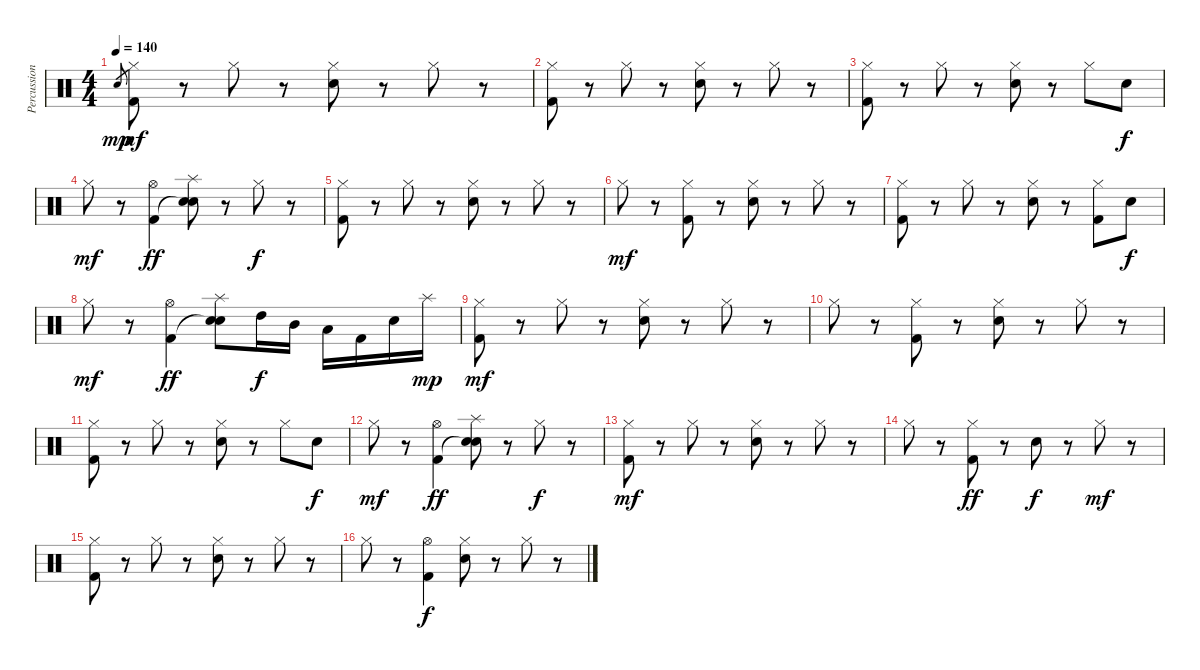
\track ("Percussion" "Percussion") {instrument percussion}
\staff {score}
\articulation defaults
\ts (4 4)
\tempo 140
\clef neutral
\ks c "Electric Snare (hit)"{sl}.8{gr dy mp}
("Hi-Hat (closed)" "Kick (hit) 2").8{dy mf} r.8 "Hi-Hat (closed)".8 r.8 ("Hi-Hat (closed)" "Electric Snare (hit)").8 r.8 "Hi-Hat (closed)".8 r.8 |
("Hi-Hat (closed)" "Kick (hit) 2").8 r.8 "Hi-Hat (closed)".8 r.8 ("Hi-Hat (closed)" "Electric Snare (hit)").8 r.8 "Hi-Hat (closed)".8 r.8 |
("Hi-Hat (closed)" "Kick (hit) 2").8 r.8 "Hi-Hat (closed)".8 r.8 ("Hi-Hat (closed)" "Electric Snare (hit)").8 r.8 "Hi-Hat (closed)".8 "Electric Snare (hit)".8{dy f} |
"Hi-Hat (closed)".8{dy mf} r.8 ("Hi-Hat (open)" "Kick (hit) 2").4{dy ff} ("Splash (hit)" "Electric Snare (hit)"{t} "Electric Snare (hit)").8 r.8 "Hi-Hat (closed)".8{dy f} r.8 |
("Hi-Hat (closed)" "Kick (hit) 2").8 r.8 "Hi-Hat (closed)".8 r.8 ("Hi-Hat (closed)" "Electric Snare (hit)").8 r.8 "Hi-Hat (closed)".8 r.8 |
"Hi-Hat (closed)".8{dy mf} r.8 ("Hi-Hat (closed)" "Kick (hit) 2").8 r.8 ("Hi-Hat (closed)" "Electric Snare (hit)").8 r.8 "Hi-Hat (closed)".8 r.8 |
("Hi-Hat (closed)" "Kick (hit) 2").8 r.8 "Hi-Hat (closed)".8 r.8 ("Hi-Hat (closed)" "Electric Snare (hit)").8 r.8 ("Hi-Hat (closed)" "Kick (hit) 2").8 "Electric Snare (hit)".8{dy f} |
"Hi-Hat (closed)".8{dy mf} r.8 ("Hi-Hat (open)" "Kick (hit) 2").4{dy ff} ("Splash (hit)" "Electric Snare (hit)"{t} "Electric Snare (hit)").8 "High Tom (hit)".16{dy f} "Mid Tom (hit)".16 "Low Tom (hit)".16 "Kick (hit) 2".16 "Electric Snare (hit)".16 "Splash (hit)".16{dy mp} |
("Hi-Hat (closed)" "Kick (hit) 2").8{dy mf} r.8 "Hi-Hat (closed)".8 r.8 ("Hi-Hat (closed)" "Electric Snare (hit)").8 r.8 "Hi-Hat (closed)".8 r.8 |
"Hi-Hat (closed)".8 r.8 ("Hi-Hat (closed)" "Kick (hit) 2").8 r.8 ("Hi-Hat (closed)" "Electric Snare (hit)").8 r.8 "Hi-Hat (closed)".8 r.8 |
("Hi-Hat (closed)" "Kick (hit) 2").8 r.8 "Hi-Hat (closed)".8 r.8 ("Hi-Hat (closed)" "Electric Snare (hit)").8 r.8 "Hi-Hat (closed)".8 "Electric Snare (hit)".8{dy f} |
"Hi-Hat (closed)".8{dy mf} r.8 ("Hi-Hat (open)" "Kick (hit) 2").4{dy ff} ("Splash (hit)" "Electric Snare (hit)"{t} "Electric Snare (hit)").8 r.8 "Hi-Hat (closed)".8{dy f} r.8 |
("Hi-Hat (closed)" "Kick (hit) 2").8{dy mf} r.8 "Hi-Hat (closed)".8 r.8 ("Hi-Hat (closed)" "Electric Snare (hit)").8 r.8 "Hi-Hat (closed)".8 r.8 |
"Hi-Hat (closed)".8 r.8 ("Hi-Hat (closed)" "Kick (hit) 2").8{dy ff} r.8 "Electric Snare (hit)".8{dy f} r.8 "Hi-Hat (closed)".8{dy mf} r.8 |
("Hi-Hat (closed)" "Kick (hit) 2").8 r.8 "Hi-Hat (closed)".8 r.8 ("Hi-Hat (closed)" "Electric Snare (hit)").8 r.8 "Hi-Hat (closed)".8 r.8 |
"Hi-Hat (closed)".8 r.8 ("Hi-Hat (open)" "Kick (hit) 2").4{dy f} ("Hi-Hat (closed)" "Electric Snare (hit)").8 r.8 "Hi-Hat (closed)".8 r.8
